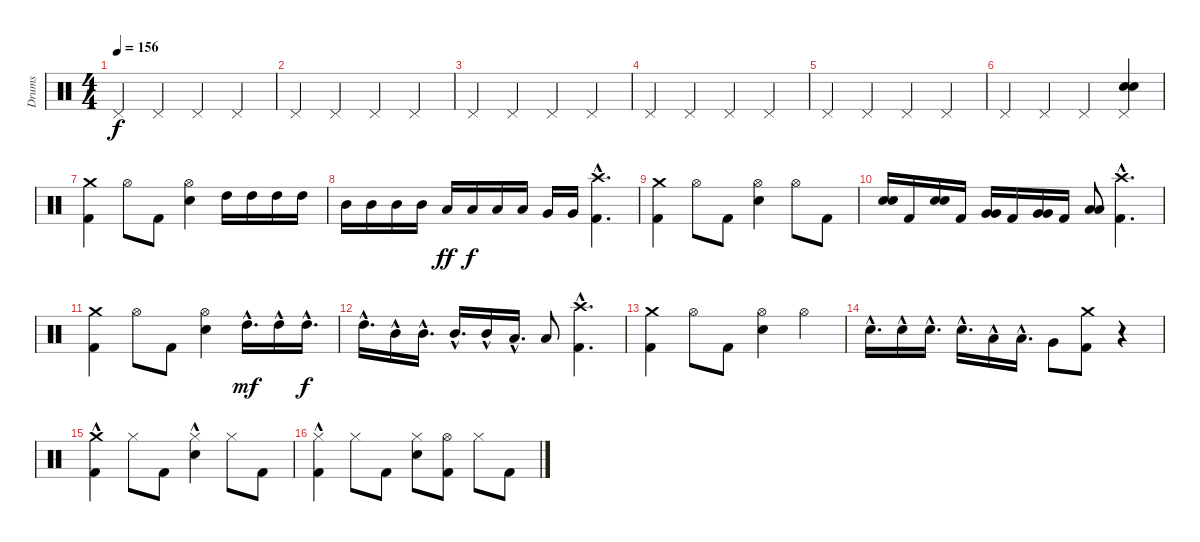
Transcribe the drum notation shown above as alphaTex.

\track ("Drums" "Drums") {instrument percussion}
\staff {score}
\articulation defaults
\ts (4 4)
\tempo 156
\clef neutral
\ks c "Pedal Hi-Hat (hit)".4{dy f} "Pedal Hi-Hat (hit)".4 "Pedal Hi-Hat (hit)".4 "Pedal Hi-Hat (hit)".4
|
"Pedal Hi-Hat (hit)".4 "Pedal Hi-Hat (hit)".4 "Pedal Hi-Hat (hit)".4 "Pedal Hi-Hat (hit)".4 |
"Pedal Hi-Hat (hit)".4 "Pedal Hi-Hat (hit)".4 "Pedal Hi-Hat (hit)".4 "Pedal Hi-Hat (hit)".4 |
"Pedal Hi-Hat (hit)".4 "Pedal Hi-Hat (hit)".4 "Pedal Hi-Hat (hit)".4 "Pedal Hi-Hat (hit)".4 |
"Pedal Hi-Hat (hit)".4 "Pedal Hi-Hat (hit)".4 "Pedal Hi-Hat (hit)".4 "Pedal Hi-Hat (hit)".4 |
"Pedal Hi-Hat (hit)".4 "Pedal Hi-Hat (hit)".4 "Pedal Hi-Hat (hit)".4 ("Snare (hit) 2" "Snare (hit) 2" "Pedal Hi-Hat (hit)").4 |
("Crash medium (hit)" "Kick (hit) 2").4 "Hi-Hat (open)".8 "Kick (hit) 2".8 ("Snare (hit) 2" "Hi-Hat (open)").4 "High Tom (hit)".16 "High Tom (hit)".16 "High Tom (hit)".16 "High Tom (hit)".16 |
"Mid Tom (hit)".16 "Mid Tom (hit)".16 "Mid Tom (hit)".16 "Mid Tom (hit)".16 "Low Tom (hit)".16{dy ff} "Low Tom (hit)".16{dy f} "Low Tom (hit)".16 "Low Tom (hit)".16 "Very Low Tom (hit)".16 "Very Low Tom (hit)".16 ("Kick (hit) 2"{hac} "Crash high (hit)"{hac}).4{d} |
("Crash medium (hit)" "Kick (hit) 2").4 "Hi-Hat (open)".8 "Kick (hit) 2".8 ("Snare (hit) 2" "Hi-Hat (open)").4 "Hi-Hat (open)".8 "Kick (hit) 2".8 |
("Snare (hit) 2" "Snare (hit) 2").16 "Kick (hit) 2".16 ("Snare (hit) 2" "Snare (hit) 2").16 "Kick (hit) 2".16 ("Very Low Tom (hit)" "Very Low Tom (hit)").16 "Kick (hit) 2".16 ("Very Low Tom (hit)" "Very Low Tom (hit)").16 "Kick (hit) 2".16 ("Low Floor Tom (hit)" "Low Floor Tom (hit)").8 ("Kick (hit) 2"{hac} "Crash high (hit)"{hac}).4{d} |
("Kick (hit) 2" "Crash medium (hit)").4 "Hi-Hat (open)".8 "Kick (hit) 2".8 ("Hi-Hat (open)" "Snare (hit) 2").4 "High Tom (hit)"{hac}.16{d dy mf} "High Tom (hit)"{hac}.16 "High Tom (hit)"{hac}.16{d dy f} |
"High Tom (hit)"{hac}.16{d} "Mid Tom (hit)"{hac}.16 "Mid Tom (hit)"{hac}.16{d} "Mid Tom (hit)"{hac}.16{d} "Mid Tom (hit)"{hac}.16 "Low Tom (hit)"{hac}.16{d} "Low Tom (hit)".8 ("Crash high (hit)"{hac} "Kick (hit) 2"{hac}).4{d} |
("Kick (hit) 2" "Crash medium (hit)").4 "Hi-Hat (open)".8 "Kick (hit) 2".8 ("Snare (hit) 2" "Hi-Hat (open)").4 "Hi-Hat (open)".4 |
"Snare (hit) 2"{hac}.16{d} "Snare (hit) 2"{hac}.16 "Snare (hit) 2"{hac}.16{d} "Snare (hit) 2"{hac}.16{d} "Low Tom (hit)"{hac}.16 "Low Tom (hit)"{hac}.16{d} "Very Low Tom (hit)".8 ("Kick (hit) 2" "Crash medium (hit)").8 r.4 |
("Crash medium (hit)" "Kick (hit) 2"{hac}).4 "Hi-Hat (closed)".8 "Kick (hit) 2".8 ("Hi-Hat (closed)" "Snare (hit) 2"{hac}).4 "Hi-Hat (closed)".8 "Kick (hit) 2".8 |
("Hi-Hat (closed)" "Kick (hit) 2"{hac}).4 "Hi-Hat (closed)".8 "Kick (hit) 2".8 ("Hi-Hat (closed)" "Snare (hit) 2").8 ("Hi-Hat (open)" "Kick (hit) 2").8 "Hi-Hat (closed)".8 "Kick (hit) 2".8
